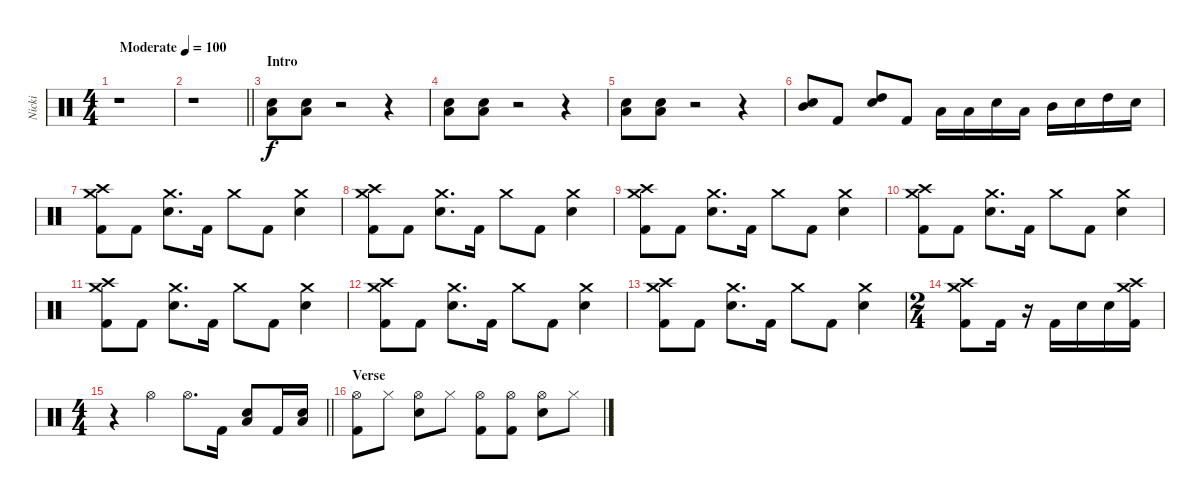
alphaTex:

\track ("Nicki" "Nicki") {instrument percussion}
\staff {score}
\articulation defaults
\ts (4 4)
\tempo (100 "Moderate")
\clef neutral
\ks c
r.1{dy f} |
\barLineRight lightlight
r.1 |
\section ("" "Intro")
("Snare (hit) 2" "Low Floor Tom (hit)").8 ("Snare (hit) 2" "Low Floor Tom (hit)").8 r.2 r.4 |
("Snare (hit) 2" "Low Floor Tom (hit)").8 ("Snare (hit) 2" "Low Floor Tom (hit)").8 r.2 r.4 |
("Snare (hit) 2" "Low Floor Tom (hit)").8 ("Snare (hit) 2" "Low Floor Tom (hit)").8 r.2 r.4 |
("Mid Tom (hit)" "Snare (hit) 2").8 "Kick (hit) 2".8 ("High Tom (hit)" "Snare (hit) 2").8 "Kick (hit) 2".8 "Low Floor Tom (hit)".16 "Low Floor Tom (hit)".16 "Snare (hit) 2".16 "Low Floor Tom (hit)".16 "Mid Tom (hit)".16 "Snare (hit) 2".16 "High Tom (hit)".16 "Snare (hit) 2".16 |
("Crash medium (hit)" "Crash high (hit)" "Kick (hit) 2").8 "Kick (hit) 2".8 ("Crash medium (hit)" "Snare (hit) 2").8{d} "Kick (hit) 2".16 "Crash medium (hit)".8 "Kick (hit) 2".8 ("Crash medium (hit)" "Snare (hit) 2").4 |
("Crash medium (hit)" "Crash high (hit)" "Kick (hit) 2").8 "Kick (hit) 2".8 ("Crash medium (hit)" "Snare (hit) 2").8{d} "Kick (hit) 2".16 "Crash medium (hit)".8 "Kick (hit) 2".8 ("Crash medium (hit)" "Snare (hit) 2").4 |
("Crash medium (hit)" "Crash high (hit)" "Kick (hit) 2").8 "Kick (hit) 2".8 ("Crash medium (hit)" "Snare (hit) 2").8{d} "Kick (hit) 2".16 "Crash medium (hit)".8 "Kick (hit) 2".8 ("Crash medium (hit)" "Snare (hit) 2").4 |
("Crash medium (hit)" "Crash high (hit)" "Kick (hit) 2").8 "Kick (hit) 2".8 ("Crash medium (hit)" "Snare (hit) 2").8{d} "Kick (hit) 2".16 "Crash medium (hit)".8 "Kick (hit) 2".8 ("Crash medium (hit)" "Snare (hit) 2").4 |
("Crash medium (hit)" "Crash high (hit)" "Kick (hit) 2").8 "Kick (hit) 2".8 ("Crash medium (hit)" "Snare (hit) 2").8{d} "Kick (hit) 2".16 "Crash medium (hit)".8 "Kick (hit) 2".8 ("Crash medium (hit)" "Snare (hit) 2").4 |
("Crash medium (hit)" "Crash high (hit)" "Kick (hit) 2").8 "Kick (hit) 2".8 ("Crash medium (hit)" "Snare (hit) 2").8{d} "Kick (hit) 2".16 "Crash medium (hit)".8 "Kick (hit) 2".8 ("Crash medium (hit)" "Snare (hit) 2").4 |
("Crash medium (hit)" "Crash high (hit)" "Kick (hit) 2").8 "Kick (hit) 2".8 ("Crash medium (hit)" "Snare (hit) 2").8{d} "Kick (hit) 2".16 "Crash medium (hit)".8 "Kick (hit) 2".8 ("Crash medium (hit)" "Snare (hit) 2").4 |
\ts (2 4)
("Crash medium (hit)" "Crash high (hit)" "Kick (hit) 2").8 "Kick (hit) 2".16 r.16 "Kick (hit) 2".16 "Snare (hit) 2".16 "Snare (hit) 2".16 ("Crash medium (hit)" "Crash high (hit)" "Kick (hit) 2").16 |
\ts (4 4)
\barLineRight lightlight
r.4 "Hi-Hat (open)".4 "Hi-Hat (open)".8{d} "Kick (hit) 2".16 ("Snare (hit) 2" "Low Floor Tom (hit)").8 "Kick (hit) 2".16 ("Snare (hit) 2" "Low Floor Tom (hit)").16 |
\section ("" "Verse")
("Hi-Hat (open)" "Kick (hit) 2").8 "Hi-Hat (closed)".8 ("Hi-Hat (open)" "Snare (hit) 2").8 "Hi-Hat (closed)".8 ("Hi-Hat (open)" "Kick (hit) 2").8 ("Hi-Hat (open)" "Kick (hit) 2").8 ("Hi-Hat (open)" "Snare (hit) 2").8 "Hi-Hat (closed)".8
